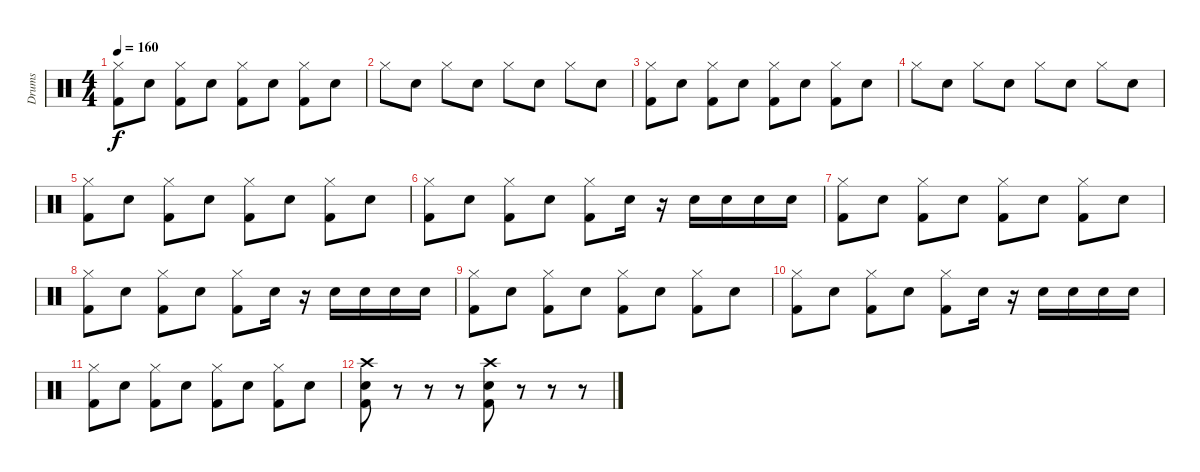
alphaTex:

\track ("Drums" "Drums") {instrument percussion}
\staff {score}
\articulation defaults
\ts (4 4)
\tempo 160
\clef neutral
\ks c
("Hi-Hat (closed)" "Kick (hit) 2").8{dy f} "Snare (hit) 2".8 ("Hi-Hat (closed)" "Kick (hit) 2").8 "Snare (hit) 2".8 ("Hi-Hat (closed)" "Kick (hit) 2").8 "Snare (hit) 2".8 ("Hi-Hat (closed)" "Kick (hit) 2").8 "Snare (hit) 2".8 |
"Hi-Hat (closed)".8 "Snare (hit) 2".8 "Hi-Hat (closed)".8 "Snare (hit) 2".8 "Hi-Hat (closed)".8 "Snare (hit) 2".8 "Hi-Hat (closed)".8 "Snare (hit) 2".8 |
("Hi-Hat (closed)" "Kick (hit) 2").8 "Snare (hit) 2".8 ("Hi-Hat (closed)" "Kick (hit) 2").8 "Snare (hit) 2".8 ("Hi-Hat (closed)" "Kick (hit) 2").8 "Snare (hit) 2".8 ("Hi-Hat (closed)" "Kick (hit) 2").8 "Snare (hit) 2".8 |
"Hi-Hat (closed)".8 "Snare (hit) 2".8 "Hi-Hat (closed)".8 "Snare (hit) 2".8 "Hi-Hat (closed)".8 "Snare (hit) 2".8 "Hi-Hat (closed)".8 "Snare (hit) 2".8 |
("Hi-Hat (closed)" "Kick (hit) 2").8 "Snare (hit) 2".8 ("Hi-Hat (closed)" "Kick (hit) 2").8 "Snare (hit) 2".8 ("Hi-Hat (closed)" "Kick (hit) 2").8 "Snare (hit) 2".8 ("Hi-Hat (closed)" "Kick (hit) 2").8 "Snare (hit) 2".8 |
("Hi-Hat (closed)" "Kick (hit) 2").8 "Snare (hit) 2".8 ("Hi-Hat (closed)" "Kick (hit) 2").8 "Snare (hit) 2".8 ("Hi-Hat (closed)" "Kick (hit) 2").8 "Snare (hit) 2".16 r.16 "Snare (hit) 2".16 "Snare (hit) 2".16 "Snare (hit) 2".16 "Snare (hit) 2".16 |
("Hi-Hat (closed)" "Kick (hit) 2").8 "Snare (hit) 2".8 ("Hi-Hat (closed)" "Kick (hit) 2").8 "Snare (hit) 2".8 ("Hi-Hat (closed)" "Kick (hit) 2").8 "Snare (hit) 2".8 ("Hi-Hat (closed)" "Kick (hit) 2").8 "Snare (hit) 2".8 |
("Hi-Hat (closed)" "Kick (hit) 2").8 "Snare (hit) 2".8 ("Hi-Hat (closed)" "Kick (hit) 2").8 "Snare (hit) 2".8 ("Hi-Hat (closed)" "Kick (hit) 2").8 "Snare (hit) 2".16 r.16 "Snare (hit) 2".16 "Snare (hit) 2".16 "Snare (hit) 2".16 "Snare (hit) 2".16 |
("Hi-Hat (closed)" "Kick (hit) 2").8 "Snare (hit) 2".8 ("Hi-Hat (closed)" "Kick (hit) 2").8 "Snare (hit) 2".8 ("Hi-Hat (closed)" "Kick (hit) 2").8 "Snare (hit) 2".8 ("Hi-Hat (closed)" "Kick (hit) 2").8 "Snare (hit) 2".8 |
("Hi-Hat (closed)" "Kick (hit) 2").8 "Snare (hit) 2".8 ("Hi-Hat (closed)" "Kick (hit) 2").8 "Snare (hit) 2".8 ("Hi-Hat (closed)" "Kick (hit) 2").8 "Snare (hit) 2".16 r.16 "Snare (hit) 2".16 "Snare (hit) 2".16 "Snare (hit) 2".16 "Snare (hit) 2".16 |
("Hi-Hat (closed)" "Kick (hit) 2").8 "Snare (hit) 2".8 ("Hi-Hat (closed)" "Kick (hit) 2").8 "Snare (hit) 2".8 ("Hi-Hat (closed)" "Kick (hit) 2").8 "Snare (hit) 2".8 ("Hi-Hat (closed)" "Kick (hit) 2").8 "Snare (hit) 2".8 |
("Crash high (hit)" "Kick (hit) 2" "Snare (hit) 2").8 r.8 r.8 r.8 ("Crash high (hit)" "Kick (hit) 2" "Snare (hit) 2").8 r.8 r.8 r.8
